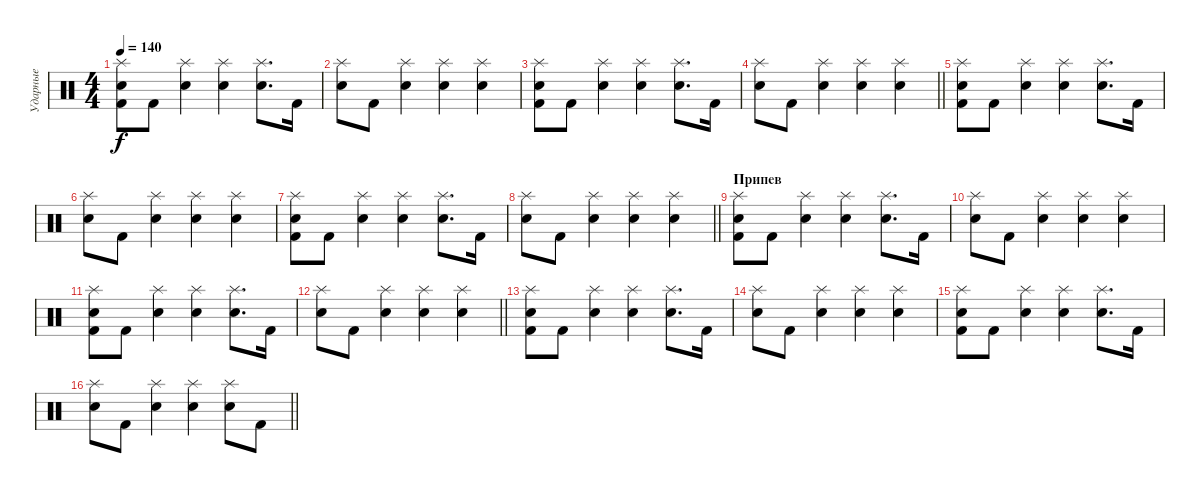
\track ("Ударные" "Ударные") {instrument percussion}
\staff {score}
\articulation defaults
\ts (4 4)
\tempo 140
\clef neutral
\ks c
("Splash (hit)" "Electric Snare (hit)" "Kick (hit) 2").8{dy f} "Kick (hit) 2".8 ("Splash (hit)" "Electric Snare (hit)").4 ("Splash (hit)" "Electric Snare (hit)").4 ("Splash (hit)" "Electric Snare (hit)").8{d} "Kick (hit) 2".16 |
("Splash (hit)" "Electric Snare (hit)").8 "Kick (hit) 2".8 ("Splash (hit)" "Electric Snare (hit)").4 ("Splash (hit)" "Electric Snare (hit)").4 ("Splash (hit)" "Electric Snare (hit)").4 |
("Splash (hit)" "Electric Snare (hit)" "Kick (hit) 2").8 "Kick (hit) 2".8 ("Splash (hit)" "Electric Snare (hit)").4 ("Splash (hit)" "Electric Snare (hit)").4 ("Splash (hit)" "Electric Snare (hit)").8{d} "Kick (hit) 2".16 |
\barLineRight lightlight
("Splash (hit)" "Electric Snare (hit)").8 "Kick (hit) 2".8 ("Splash (hit)" "Electric Snare (hit)").4 ("Splash (hit)" "Electric Snare (hit)").4 ("Splash (hit)" "Electric Snare (hit)").4 |
("Splash (hit)" "Electric Snare (hit)" "Kick (hit) 2").8 "Kick (hit) 2".8 ("Splash (hit)" "Electric Snare (hit)").4 ("Splash (hit)" "Electric Snare (hit)").4 ("Splash (hit)" "Electric Snare (hit)").8{d} "Kick (hit) 2".16 |
("Splash (hit)" "Electric Snare (hit)").8 "Kick (hit) 2".8 ("Splash (hit)" "Electric Snare (hit)").4 ("Splash (hit)" "Electric Snare (hit)").4 ("Splash (hit)" "Electric Snare (hit)").4 |
("Splash (hit)" "Electric Snare (hit)" "Kick (hit) 2").8 "Kick (hit) 2".8 ("Splash (hit)" "Electric Snare (hit)").4 ("Splash (hit)" "Electric Snare (hit)").4 ("Splash (hit)" "Electric Snare (hit)").8{d} "Kick (hit) 2".16 |
\barLineRight lightlight
("Splash (hit)" "Electric Snare (hit)").8 "Kick (hit) 2".8 ("Splash (hit)" "Electric Snare (hit)").4 ("Splash (hit)" "Electric Snare (hit)").4 ("Splash (hit)" "Electric Snare (hit)").4 |
\section ("" "Припев")
("Splash (hit)" "Electric Snare (hit)" "Kick (hit) 2").8 "Kick (hit) 2".8 ("Splash (hit)" "Electric Snare (hit)").4 ("Splash (hit)" "Electric Snare (hit)").4 ("Splash (hit)" "Electric Snare (hit)").8{d} "Kick (hit) 2".16 |
("Splash (hit)" "Electric Snare (hit)").8 "Kick (hit) 2".8 ("Splash (hit)" "Electric Snare (hit)").4 ("Splash (hit)" "Electric Snare (hit)").4 ("Splash (hit)" "Electric Snare (hit)").4 |
("Splash (hit)" "Electric Snare (hit)" "Kick (hit) 2").8 "Kick (hit) 2".8 ("Splash (hit)" "Electric Snare (hit)").4 ("Splash (hit)" "Electric Snare (hit)").4 ("Splash (hit)" "Electric Snare (hit)").8{d} "Kick (hit) 2".16 |
\barLineRight lightlight
("Splash (hit)" "Electric Snare (hit)").8 "Kick (hit) 2".8 ("Splash (hit)" "Electric Snare (hit)").4 ("Splash (hit)" "Electric Snare (hit)").4 ("Splash (hit)" "Electric Snare (hit)").4 |
("Splash (hit)" "Electric Snare (hit)" "Kick (hit) 2").8 "Kick (hit) 2".8 ("Splash (hit)" "Electric Snare (hit)").4 ("Splash (hit)" "Electric Snare (hit)").4 ("Splash (hit)" "Electric Snare (hit)").8{d} "Kick (hit) 2".16 |
("Splash (hit)" "Electric Snare (hit)").8 "Kick (hit) 2".8 ("Splash (hit)" "Electric Snare (hit)").4 ("Splash (hit)" "Electric Snare (hit)").4 ("Splash (hit)" "Electric Snare (hit)").4 |
("Splash (hit)" "Electric Snare (hit)" "Kick (hit) 2").8 "Kick (hit) 2".8 ("Splash (hit)" "Electric Snare (hit)").4 ("Splash (hit)" "Electric Snare (hit)").4 ("Splash (hit)" "Electric Snare (hit)").8{d} "Kick (hit) 2".16 |
\barLineRight lightlight
("Splash (hit)" "Electric Snare (hit)").8 "Kick (hit) 2".8 ("Splash (hit)" "Electric Snare (hit)").4 ("Splash (hit)" "Electric Snare (hit)").4 ("Splash (hit)" "Electric Snare (hit)").8 "Kick (hit) 2".8
